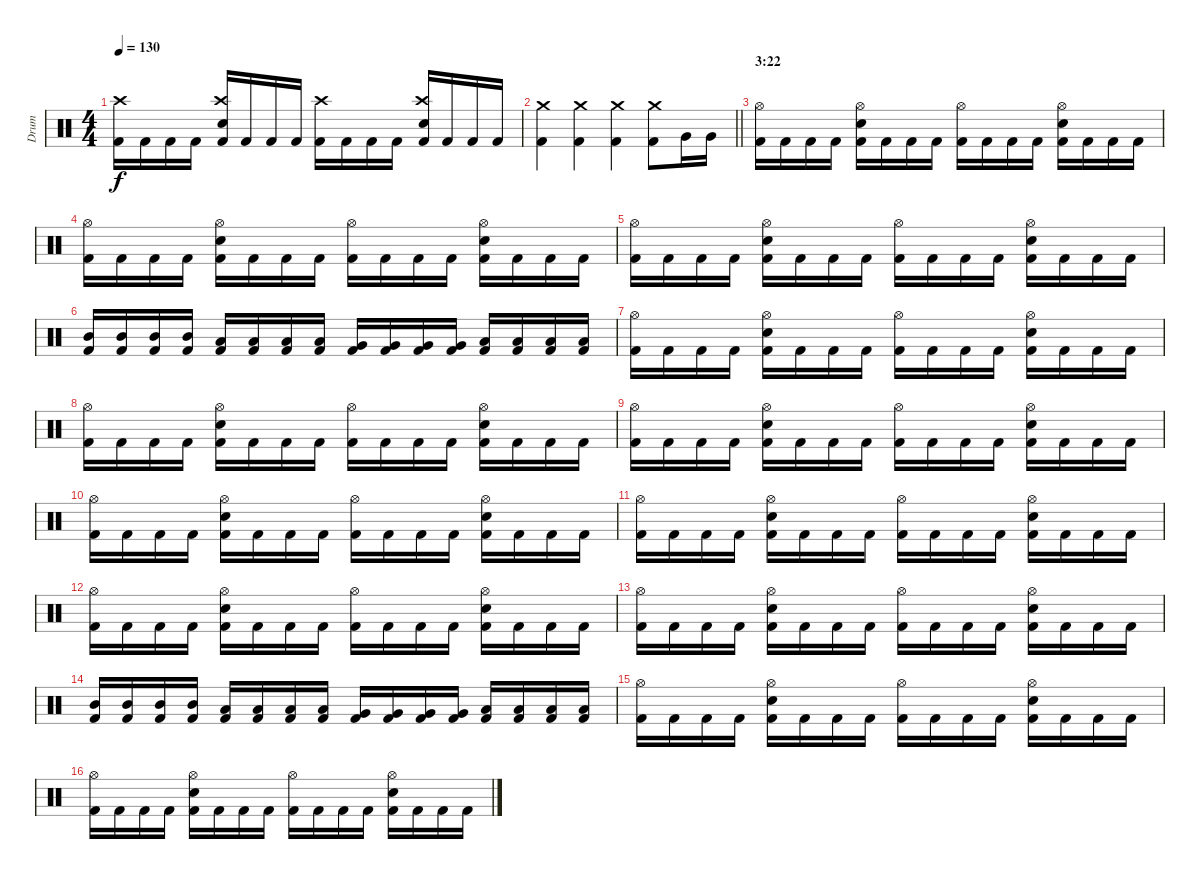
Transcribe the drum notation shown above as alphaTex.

\track ("Drum" "Drum") {instrument percussion}
\staff {score}
\articulation defaults
\ts (4 4)
\tempo 130
\clef neutral
\ks c
("Kick (hit) 2" "Crash high (hit)").16{dy f} "Kick (hit) 2".16 "Kick (hit) 2".16 "Kick (hit) 2".16 ("Kick (hit) 2" "Electric Snare (hit)" "Crash high (hit)").16 "Kick (hit) 2".16 "Kick (hit) 2".16 "Kick (hit) 2".16 ("Kick (hit) 2" "Crash high (hit)").16 "Kick (hit) 2".16 "Kick (hit) 2".16 "Kick (hit) 2".16 ("Kick (hit) 2" "Electric Snare (hit)" "Crash high (hit)").16 "Kick (hit) 2".16 "Kick (hit) 2".16 "Kick (hit) 2".16 |
\barLineRight lightlight
("Kick (hit) 2" "Crash medium (hit)").4 ("Kick (hit) 2" "Crash medium (hit)").4 ("Kick (hit) 2" "Crash medium (hit)").4 ("Kick (hit) 2" "Crash medium (hit)").8 "Very Low Tom (hit)".16 "Very Low Tom (hit)".16 |
\section ("" "3:22")
("Kick (hit) 2" "Hi-Hat (open)").16 "Kick (hit) 2".16 "Kick (hit) 2".16 "Kick (hit) 2".16 ("Kick (hit) 2" "Electric Snare (hit)" "Hi-Hat (open)").16 "Kick (hit) 2".16 "Kick (hit) 2".16 "Kick (hit) 2".16 ("Kick (hit) 2" "Hi-Hat (open)").16 "Kick (hit) 2".16 "Kick (hit) 2".16 "Kick (hit) 2".16 ("Kick (hit) 2" "Electric Snare (hit)" "Hi-Hat (open)").16 "Kick (hit) 2".16 "Kick (hit) 2".16 "Kick (hit) 2".16 |
("Kick (hit) 2" "Hi-Hat (open)").16 "Kick (hit) 2".16 "Kick (hit) 2".16 "Kick (hit) 2".16 ("Kick (hit) 2" "Electric Snare (hit)" "Hi-Hat (open)").16 "Kick (hit) 2".16 "Kick (hit) 2".16 "Kick (hit) 2".16 ("Kick (hit) 2" "Hi-Hat (open)").16 "Kick (hit) 2".16 "Kick (hit) 2".16 "Kick (hit) 2".16 ("Kick (hit) 2" "Electric Snare (hit)" "Hi-Hat (open)").16 "Kick (hit) 2".16 "Kick (hit) 2".16 "Kick (hit) 2".16 |
("Kick (hit) 2" "Hi-Hat (open)").16 "Kick (hit) 2".16 "Kick (hit) 2".16 "Kick (hit) 2".16 ("Kick (hit) 2" "Electric Snare (hit)" "Hi-Hat (open)").16 "Kick (hit) 2".16 "Kick (hit) 2".16 "Kick (hit) 2".16 ("Kick (hit) 2" "Hi-Hat (open)").16 "Kick (hit) 2".16 "Kick (hit) 2".16 "Kick (hit) 2".16 ("Kick (hit) 2" "Electric Snare (hit)" "Hi-Hat (open)").16 "Kick (hit) 2".16 "Kick (hit) 2".16 "Kick (hit) 2".16 |
("Kick (hit) 2" "Mid Tom (hit)").16 ("Kick (hit) 2" "Mid Tom (hit)").16 ("Kick (hit) 2" "Mid Tom (hit)").16 ("Kick (hit) 2" "Mid Tom (hit)").16 ("Kick (hit) 2" "Low Tom (hit)").16 ("Kick (hit) 2" "Low Tom (hit)").16 ("Kick (hit) 2" "Low Tom (hit)").16 ("Kick (hit) 2" "Low Tom (hit)").16 ("Kick (hit) 2" "Very Low Tom (hit)").16 ("Kick (hit) 2" "Very Low Tom (hit)").16 ("Kick (hit) 2" "Very Low Tom (hit)").16 ("Kick (hit) 2" "Very Low Tom (hit)").16 ("Kick (hit) 2" "Low Floor Tom (hit)").16 ("Kick (hit) 2" "Low Floor Tom (hit)").16 ("Kick (hit) 2" "Low Floor Tom (hit)").16 ("Kick (hit) 2" "Low Floor Tom (hit)").16 |
("Kick (hit) 2" "Hi-Hat (open)").16 "Kick (hit) 2".16 "Kick (hit) 2".16 "Kick (hit) 2".16 ("Kick (hit) 2" "Electric Snare (hit)" "Hi-Hat (open)").16 "Kick (hit) 2".16 "Kick (hit) 2".16 "Kick (hit) 2".16 ("Kick (hit) 2" "Hi-Hat (open)").16 "Kick (hit) 2".16 "Kick (hit) 2".16 "Kick (hit) 2".16 ("Kick (hit) 2" "Electric Snare (hit)" "Hi-Hat (open)").16 "Kick (hit) 2".16 "Kick (hit) 2".16 "Kick (hit) 2".16 |
("Kick (hit) 2" "Hi-Hat (open)").16 "Kick (hit) 2".16 "Kick (hit) 2".16 "Kick (hit) 2".16 ("Kick (hit) 2" "Electric Snare (hit)" "Hi-Hat (open)").16 "Kick (hit) 2".16 "Kick (hit) 2".16 "Kick (hit) 2".16 ("Kick (hit) 2" "Hi-Hat (open)").16 "Kick (hit) 2".16 "Kick (hit) 2".16 "Kick (hit) 2".16 ("Kick (hit) 2" "Electric Snare (hit)" "Hi-Hat (open)").16 "Kick (hit) 2".16 "Kick (hit) 2".16 "Kick (hit) 2".16 |
("Kick (hit) 2" "Hi-Hat (open)").16 "Kick (hit) 2".16 "Kick (hit) 2".16 "Kick (hit) 2".16 ("Kick (hit) 2" "Electric Snare (hit)" "Hi-Hat (open)").16 "Kick (hit) 2".16 "Kick (hit) 2".16 "Kick (hit) 2".16 ("Kick (hit) 2" "Hi-Hat (open)").16 "Kick (hit) 2".16 "Kick (hit) 2".16 "Kick (hit) 2".16 ("Kick (hit) 2" "Electric Snare (hit)" "Hi-Hat (open)").16 "Kick (hit) 2".16 "Kick (hit) 2".16 "Kick (hit) 2".16 |
("Kick (hit) 2" "Hi-Hat (open)").16 "Kick (hit) 2".16 "Kick (hit) 2".16 "Kick (hit) 2".16 ("Kick (hit) 2" "Electric Snare (hit)" "Hi-Hat (open)").16 "Kick (hit) 2".16 "Kick (hit) 2".16 "Kick (hit) 2".16 ("Kick (hit) 2" "Hi-Hat (open)").16 "Kick (hit) 2".16 "Kick (hit) 2".16 "Kick (hit) 2".16 ("Kick (hit) 2" "Electric Snare (hit)" "Hi-Hat (open)").16 "Kick (hit) 2".16 "Kick (hit) 2".16 "Kick (hit) 2".16 |
("Kick (hit) 2" "Hi-Hat (open)").16 "Kick (hit) 2".16 "Kick (hit) 2".16 "Kick (hit) 2".16 ("Kick (hit) 2" "Electric Snare (hit)" "Hi-Hat (open)").16 "Kick (hit) 2".16 "Kick (hit) 2".16 "Kick (hit) 2".16 ("Kick (hit) 2" "Hi-Hat (open)").16 "Kick (hit) 2".16 "Kick (hit) 2".16 "Kick (hit) 2".16 ("Kick (hit) 2" "Electric Snare (hit)" "Hi-Hat (open)").16 "Kick (hit) 2".16 "Kick (hit) 2".16 "Kick (hit) 2".16 |
("Kick (hit) 2" "Hi-Hat (open)").16 "Kick (hit) 2".16 "Kick (hit) 2".16 "Kick (hit) 2".16 ("Kick (hit) 2" "Electric Snare (hit)" "Hi-Hat (open)").16 "Kick (hit) 2".16 "Kick (hit) 2".16 "Kick (hit) 2".16 ("Kick (hit) 2" "Hi-Hat (open)").16 "Kick (hit) 2".16 "Kick (hit) 2".16 "Kick (hit) 2".16 ("Kick (hit) 2" "Electric Snare (hit)" "Hi-Hat (open)").16 "Kick (hit) 2".16 "Kick (hit) 2".16 "Kick (hit) 2".16 |
("Kick (hit) 2" "Hi-Hat (open)").16 "Kick (hit) 2".16 "Kick (hit) 2".16 "Kick (hit) 2".16 ("Kick (hit) 2" "Electric Snare (hit)" "Hi-Hat (open)").16 "Kick (hit) 2".16 "Kick (hit) 2".16 "Kick (hit) 2".16 ("Kick (hit) 2" "Hi-Hat (open)").16 "Kick (hit) 2".16 "Kick (hit) 2".16 "Kick (hit) 2".16 ("Kick (hit) 2" "Electric Snare (hit)" "Hi-Hat (open)").16 "Kick (hit) 2".16 "Kick (hit) 2".16 "Kick (hit) 2".16 |
("Kick (hit) 2" "Mid Tom (hit)").16 ("Kick (hit) 2" "Mid Tom (hit)").16 ("Kick (hit) 2" "Mid Tom (hit)").16 ("Kick (hit) 2" "Mid Tom (hit)").16 ("Kick (hit) 2" "Low Tom (hit)").16 ("Kick (hit) 2" "Low Tom (hit)").16 ("Kick (hit) 2" "Low Tom (hit)").16 ("Kick (hit) 2" "Low Tom (hit)").16 ("Kick (hit) 2" "Very Low Tom (hit)").16 ("Kick (hit) 2" "Very Low Tom (hit)").16 ("Kick (hit) 2" "Very Low Tom (hit)").16 ("Kick (hit) 2" "Very Low Tom (hit)").16 ("Kick (hit) 2" "Low Floor Tom (hit)").16 ("Kick (hit) 2" "Low Floor Tom (hit)").16 ("Kick (hit) 2" "Low Floor Tom (hit)").16 ("Kick (hit) 2" "Low Floor Tom (hit)").16 |
("Kick (hit) 2" "Hi-Hat (open)").16 "Kick (hit) 2".16 "Kick (hit) 2".16 "Kick (hit) 2".16 ("Kick (hit) 2" "Electric Snare (hit)" "Hi-Hat (open)").16 "Kick (hit) 2".16 "Kick (hit) 2".16 "Kick (hit) 2".16 ("Kick (hit) 2" "Hi-Hat (open)").16 "Kick (hit) 2".16 "Kick (hit) 2".16 "Kick (hit) 2".16 ("Kick (hit) 2" "Electric Snare (hit)" "Hi-Hat (open)").16 "Kick (hit) 2".16 "Kick (hit) 2".16 "Kick (hit) 2".16 |
("Kick (hit) 2" "Hi-Hat (open)").16 "Kick (hit) 2".16 "Kick (hit) 2".16 "Kick (hit) 2".16 ("Kick (hit) 2" "Electric Snare (hit)" "Hi-Hat (open)").16 "Kick (hit) 2".16 "Kick (hit) 2".16 "Kick (hit) 2".16 ("Kick (hit) 2" "Hi-Hat (open)").16 "Kick (hit) 2".16 "Kick (hit) 2".16 "Kick (hit) 2".16 ("Kick (hit) 2" "Electric Snare (hit)" "Hi-Hat (open)").16 "Kick (hit) 2".16 "Kick (hit) 2".16 "Kick (hit) 2".16
